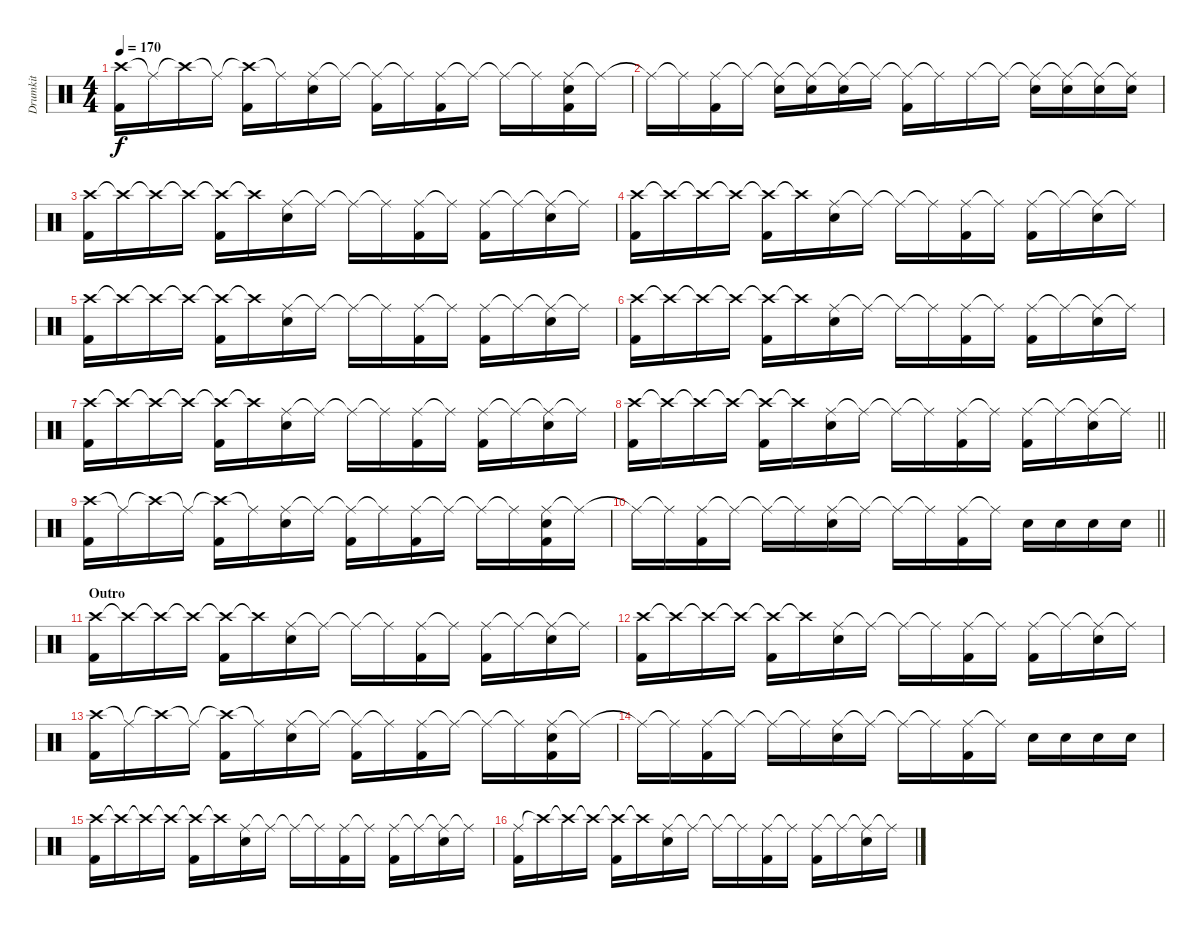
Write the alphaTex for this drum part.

\track ("Drumkit" "Drumkit") {instrument percussion}
\staff {score}
\articulation defaults
\ts (4 4)
\tempo 170
\clef neutral
\ks c
("Crash high (hit)" "Kick (hit) 2").16{dy f} "Ride (middle)"{t}.16 "Crash high (hit)"{t}.16 "Ride (middle)"{t}.16 ("Crash high (hit)"{t} "Kick (hit) 2").16 "Ride (middle)"{t}.16 ("Ride (middle)" "Snare (hit) 2").16 "Ride (middle)"{t}.16 ("Ride (middle)"{t} "Kick (hit) 2").16 "Ride (middle)"{t}.16 ("Ride (middle)" "Kick (hit) 2").16 "Ride (middle)"{t}.16 "Ride (middle)"{t}.16 "Ride (middle)"{t}.16 ("Ride (middle)" "Snare (hit) 2" "Kick (hit) 2").16 "Ride (middle)"{t}.16 |
"Ride (middle)"{t}.16 "Ride (middle)"{t}.16 ("Ride (middle)" "Kick (hit) 2").16 "Ride (middle)"{t}.16 ("Ride (middle)"{t} "Snare (hit) 2").16 ("Ride (middle)"{t} "Snare (hit) 2").16 ("Ride (middle)"{t} "Snare (hit) 2").16 "Ride (middle)"{t}.16 ("Ride (middle)"{t} "Kick (hit) 2").16 "Ride (middle)"{t}.16 "Ride (middle)".16 "Ride (middle)"{t}.16 ("Ride (middle)"{t} "Snare (hit) 2").16 ("Ride (middle)"{t} "Snare (hit) 2").16 ("Ride (middle)"{t} "Snare (hit) 2").16 ("Ride (middle)"{t} "Snare (hit) 2").16 |
("Crash high (hit)" "Kick (hit) 2").16 "Crash high (hit)"{t}.16 "Crash high (hit)"{t}.16 "Crash high (hit)"{t}.16 ("Crash high (hit)"{t} "Kick (hit) 2").16 "Crash high (hit)"{t}.16 ("Ride (middle)" "Snare (hit) 2").16 "Ride (middle)"{t}.16 "Ride (middle)"{t}.16 "Ride (middle)"{t}.16 ("Ride (middle)" "Kick (hit) 2").16 "Ride (middle)"{t}.16 ("Ride (middle)" "Kick (hit) 2").16 "Ride (middle)"{t}.16 ("Ride (middle)"{t} "Snare (hit) 2").16 "Ride (middle)"{t}.16 |
("Crash high (hit)" "Kick (hit) 2").16 "Crash high (hit)"{t}.16 "Crash high (hit)"{t}.16 "Crash high (hit)"{t}.16 ("Crash high (hit)"{t} "Kick (hit) 2").16 "Crash high (hit)"{t}.16 ("Ride (middle)" "Snare (hit) 2").16 "Ride (middle)"{t}.16 "Ride (middle)"{t}.16 "Ride (middle)"{t}.16 ("Ride (middle)" "Kick (hit) 2").16 "Ride (middle)"{t}.16 ("Ride (middle)" "Kick (hit) 2").16 "Ride (middle)"{t}.16 ("Ride (middle)"{t} "Snare (hit) 2").16 "Ride (middle)"{t}.16 |
("Crash high (hit)" "Kick (hit) 2").16 "Crash high (hit)"{t}.16 "Crash high (hit)"{t}.16 "Crash high (hit)"{t}.16 ("Crash high (hit)"{t} "Kick (hit) 2").16 "Crash high (hit)"{t}.16 ("Ride (middle)" "Snare (hit) 2").16 "Ride (middle)"{t}.16 "Ride (middle)"{t}.16 "Ride (middle)"{t}.16 ("Ride (middle)" "Kick (hit) 2").16 "Ride (middle)"{t}.16 ("Ride (middle)" "Kick (hit) 2").16 "Ride (middle)"{t}.16 ("Ride (middle)"{t} "Snare (hit) 2").16 "Ride (middle)"{t}.16 |
("Crash high (hit)" "Kick (hit) 2").16 "Crash high (hit)"{t}.16 "Crash high (hit)"{t}.16 "Crash high (hit)"{t}.16 ("Crash high (hit)"{t} "Kick (hit) 2").16 "Crash high (hit)"{t}.16 ("Ride (middle)" "Snare (hit) 2").16 "Ride (middle)"{t}.16 "Ride (middle)"{t}.16 "Ride (middle)"{t}.16 ("Ride (middle)" "Kick (hit) 2").16 "Ride (middle)"{t}.16 ("Ride (middle)" "Kick (hit) 2").16 "Ride (middle)"{t}.16 ("Ride (middle)"{t} "Snare (hit) 2").16 "Ride (middle)"{t}.16 |
("Crash high (hit)" "Kick (hit) 2").16 "Crash high (hit)"{t}.16 "Crash high (hit)"{t}.16 "Crash high (hit)"{t}.16 ("Crash high (hit)"{t} "Kick (hit) 2").16 "Crash high (hit)"{t}.16 ("Ride (middle)" "Snare (hit) 2").16 "Ride (middle)"{t}.16 "Ride (middle)"{t}.16 "Ride (middle)"{t}.16 ("Ride (middle)" "Kick (hit) 2").16 "Ride (middle)"{t}.16 ("Ride (middle)" "Kick (hit) 2").16 "Ride (middle)"{t}.16 ("Ride (middle)"{t} "Snare (hit) 2").16 "Ride (middle)"{t}.16 |
\barLineRight lightlight
("Crash high (hit)" "Kick (hit) 2").16 "Crash high (hit)"{t}.16 "Crash high (hit)"{t}.16 "Crash high (hit)"{t}.16 ("Crash high (hit)"{t} "Kick (hit) 2").16 "Crash high (hit)"{t}.16 ("Ride (middle)" "Snare (hit) 2").16 "Ride (middle)"{t}.16 "Ride (middle)"{t}.16 "Ride (middle)"{t}.16 ("Ride (middle)" "Kick (hit) 2").16 "Ride (middle)"{t}.16 ("Ride (middle)" "Kick (hit) 2").16 "Ride (middle)"{t}.16 ("Ride (middle)"{t} "Snare (hit) 2").16 "Ride (middle)"{t}.16 |
("Crash high (hit)" "Kick (hit) 2").16 "Ride (middle)"{t}.16 "Crash high (hit)"{t}.16 "Ride (middle)"{t}.16 ("Crash high (hit)"{t} "Kick (hit) 2").16 "Ride (middle)"{t}.16 ("Ride (middle)" "Snare (hit) 2").16 "Ride (middle)"{t}.16 ("Ride (middle)"{t} "Kick (hit) 2").16 "Ride (middle)"{t}.16 ("Ride (middle)" "Kick (hit) 2").16 "Ride (middle)"{t}.16 "Ride (middle)"{t}.16 "Ride (middle)"{t}.16 ("Ride (middle)" "Snare (hit) 2" "Kick (hit) 2").16 "Ride (middle)"{t}.16 |
\barLineRight lightlight "Ride (middle)"{t}.16 "Ride (middle)"{t}.16
("Ride (middle)" "Kick (hit) 2").16 "Ride (middle)"{t}.16 "Ride (middle)"{t}.16 "Ride (middle)"{t}.16 ("Ride (middle)" "Snare (hit) 2").16 "Ride (middle)"{t}.16 "Ride (middle)"{t}.16 "Ride (middle)"{t}.16 ("Ride (middle)" "Kick (hit) 2").16 "Ride (middle)"{t}.16 "Snare (hit) 2".16 "Snare (hit) 2".16 "Snare (hit) 2".16 "Snare (hit) 2".16 |
\section ("" "Outro")
("Crash high (hit)" "Kick (hit) 2").16 "Crash high (hit)"{t}.16 "Crash high (hit)"{t}.16 "Crash high (hit)"{t}.16 ("Crash high (hit)"{t} "Kick (hit) 2").16 "Crash high (hit)"{t}.16 ("Ride (middle)" "Snare (hit) 2").16 "Ride (middle)"{t}.16 "Ride (middle)"{t}.16 "Ride (middle)"{t}.16 ("Ride (middle)" "Kick (hit) 2").16 "Ride (middle)"{t}.16 ("Ride (middle)" "Kick (hit) 2").16 "Ride (middle)"{t}.16 ("Ride (middle)"{t} "Snare (hit) 2").16 "Ride (middle)"{t}.16 |
("Crash high (hit)" "Kick (hit) 2").16 "Crash high (hit)"{t}.16 "Crash high (hit)"{t}.16 "Crash high (hit)"{t}.16 ("Crash high (hit)"{t} "Kick (hit) 2").16 "Crash high (hit)"{t}.16 ("Ride (middle)" "Snare (hit) 2").16 "Ride (middle)"{t}.16 "Ride (middle)"{t}.16 "Ride (middle)"{t}.16 ("Ride (middle)" "Kick (hit) 2").16 "Ride (middle)"{t}.16 ("Ride (middle)" "Kick (hit) 2").16 "Ride (middle)"{t}.16 ("Ride (middle)"{t} "Snare (hit) 2").16 "Ride (middle)"{t}.16 |
("Crash high (hit)" "Kick (hit) 2").16 "Ride (middle)"{t}.16 "Crash high (hit)"{t}.16 "Ride (middle)"{t}.16 ("Crash high (hit)"{t} "Kick (hit) 2").16 "Ride (middle)"{t}.16 ("Ride (middle)" "Snare (hit) 2").16 "Ride (middle)"{t}.16 ("Ride (middle)"{t} "Kick (hit) 2").16 "Ride (middle)"{t}.16 ("Ride (middle)" "Kick (hit) 2").16 "Ride (middle)"{t}.16 "Ride (middle)"{t}.16 "Ride (middle)"{t}.16 ("Ride (middle)" "Snare (hit) 2" "Kick (hit) 2").16 "Ride (middle)"{t}.16 |
"Ride (middle)"{t}.16 "Ride (middle)"{t}.16 ("Ride (middle)" "Kick (hit) 2").16 "Ride (middle)"{t}.16 "Ride (middle)"{t}.16 "Ride (middle)"{t}.16 ("Ride (middle)" "Snare (hit) 2").16 "Ride (middle)"{t}.16 "Ride (middle)"{t}.16 "Ride (middle)"{t}.16 ("Ride (middle)" "Kick (hit) 2").16 "Ride (middle)"{t}.16 "Snare (hit) 2".16 "Snare (hit) 2".16 "Snare (hit) 2".16 "Snare (hit) 2".16 |
("Crash high (hit)" "Kick (hit) 2").16 "Crash high (hit)"{t}.16 "Crash high (hit)"{t}.16 "Crash high (hit)"{t}.16 ("Crash high (hit)"{t} "Kick (hit) 2").16 "Crash high (hit)"{t}.16 ("Ride (middle)" "Snare (hit) 2").16 "Ride (middle)"{t}.16 "Ride (middle)"{t}.16 "Ride (middle)"{t}.16 ("Ride (middle)" "Kick (hit) 2").16 "Ride (middle)"{t}.16 ("Ride (middle)" "Kick (hit) 2").16 "Ride (middle)"{t}.16 ("Ride (middle)"{t} "Snare (hit) 2").16 "Ride (middle)"{t}.16 |
("Ride (middle)" "Kick (hit) 2").16 "Crash high (hit)"{t}.16 "Crash high (hit)"{t}.16 "Crash high (hit)"{t}.16 ("Crash high (hit)"{t} "Kick (hit) 2").16 "Crash high (hit)"{t}.16 ("Ride (middle)" "Snare (hit) 2").16 "Ride (middle)"{t}.16 "Ride (middle)"{t}.16 "Ride (middle)"{t}.16 ("Ride (middle)" "Kick (hit) 2").16 "Ride (middle)"{t}.16 ("Ride (middle)" "Kick (hit) 2").16 "Ride (middle)"{t}.16 ("Ride (middle)"{t} "Snare (hit) 2").16 "Ride (middle)"{t}.16
